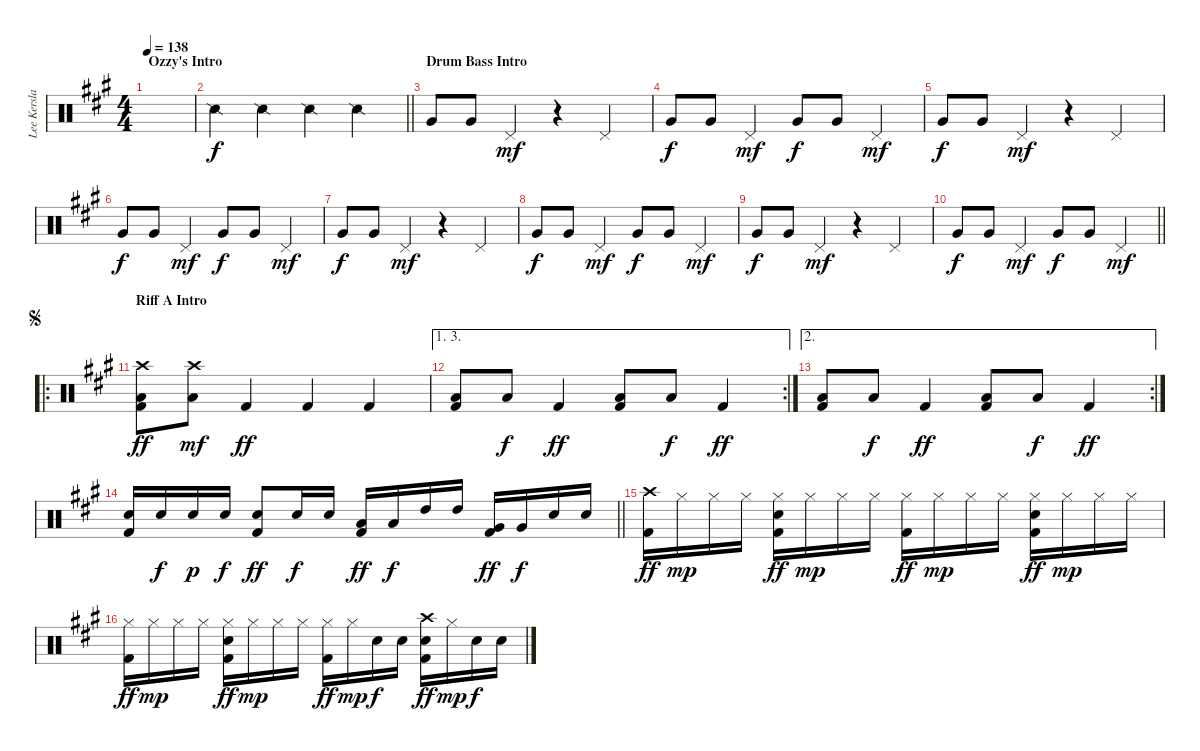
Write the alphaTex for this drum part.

\track ("Lee Kerslake" "Lee Kersla") {instrument percussion}
\staff {score}
\articulation defaults
\ts (4 4)
\section ("" "Ozzy's Intro")
\tempo 138
\clef neutral
\ks a
|
\barLineRight lightlight "Snare (side stick) 2".4 "Snare (side stick) 2".4 "Snare (side stick) 2".4 "Snare (side stick) 2".4
|
\section ("" "Drum Bass Intro")
"Very Low Tom (hit)".8 "Very Low Tom (hit)".8 "Pedal Hi-Hat (hit)".4{dy mf} r.4 "Pedal Hi-Hat (hit)".4 |
"Very Low Tom (hit)".8{dy f} "Very Low Tom (hit)".8 "Pedal Hi-Hat (hit)".4{dy mf} "Very Low Tom (hit)".8{dy f} "Very Low Tom (hit)".8 "Pedal Hi-Hat (hit)".4{dy mf} |
"Very Low Tom (hit)".8{dy f} "Very Low Tom (hit)".8 "Pedal Hi-Hat (hit)".4{dy mf} r.4 "Pedal Hi-Hat (hit)".4 |
"Very Low Tom (hit)".8{dy f} "Very Low Tom (hit)".8 "Pedal Hi-Hat (hit)".4{dy mf} "Very Low Tom (hit)".8{dy f} "Very Low Tom (hit)".8 "Pedal Hi-Hat (hit)".4{dy mf} |
"Very Low Tom (hit)".8{dy f} "Very Low Tom (hit)".8 "Pedal Hi-Hat (hit)".4{dy mf} r.4 "Pedal Hi-Hat (hit)".4 |
"Very Low Tom (hit)".8{dy f} "Very Low Tom (hit)".8 "Pedal Hi-Hat (hit)".4{dy mf} "Very Low Tom (hit)".8{dy f} "Very Low Tom (hit)".8 "Pedal Hi-Hat (hit)".4{dy mf} |
"Very Low Tom (hit)".8{dy f} "Very Low Tom (hit)".8 "Pedal Hi-Hat (hit)".4{dy mf} r.4 "Pedal Hi-Hat (hit)".4 |
\barLineRight lightlight "Very Low Tom (hit)".8{dy f} "Very Low Tom (hit)".8 "Pedal Hi-Hat (hit)".4{dy mf} "Very Low Tom (hit)".8{dy f} "Very Low Tom (hit)".8 "Pedal Hi-Hat (hit)".4{dy mf}
|
\ro
\section ("" "Riff A Intro")
\jump segno
("Low Tom (hit)" "Crash high (hit)" "Kick (hit) 2").8{dy ff} ("Low Tom (hit)" "Crash high (hit)").8{dy mf} "Kick (hit) 2".4{dy ff} "Kick (hit) 2".4 "Kick (hit) 2".4 |
\ae (1 3)
\rc 2
("Low Tom (hit)" "Kick (hit) 2").8 "Low Tom (hit)".8{dy f} "Kick (hit) 2".4{dy ff} ("Low Tom (hit)" "Kick (hit) 2").8 "Low Tom (hit)".8{dy f} "Kick (hit) 2".4{dy ff} |
\ae 2
\rc 2
("Low Tom (hit)" "Kick (hit) 2").8 "Low Tom (hit)".8{dy f} "Kick (hit) 2".4{dy ff} ("Low Tom (hit)" "Kick (hit) 2").8 "Low Tom (hit)".8{dy f} "Kick (hit) 2".4{dy ff} |
\barLineRight lightlight
("Kick (hit) 2" "Snare (hit) 2").16 "Snare (hit) 2".16{dy f} "Snare (hit) 2".16{dy p} "Snare (hit) 2".16{dy f} ("Kick (hit) 2" "Snare (hit) 2").8{dy ff} "Snare (hit) 2".16{dy f} "Snare (hit) 2".16 ("Kick (hit) 2" "Low Tom (hit)").16{dy ff} "Low Tom (hit)".16{dy f} "High Tom (hit)".16 "High Tom (hit)".16 ("Kick (hit) 2" "Very Low Tom (hit)").16{dy ff} "Very Low Tom (hit)".16{dy f} "Snare (hit) 2".16 "Snare (hit) 2".16 |
("Crash high (hit)" "Kick (hit) 2").16{dy ff} "Hi-Hat (closed)".16{dy mp} "Hi-Hat (closed)".16 "Hi-Hat (closed)".16 ("Hi-Hat (closed)" "Snare (hit) 2" "Kick (hit) 2").16{dy ff} "Hi-Hat (closed)".16{dy mp} "Hi-Hat (closed)".16 "Hi-Hat (closed)".16 ("Hi-Hat (closed)" "Kick (hit) 2").16{dy ff} "Hi-Hat (closed)".16{dy mp} "Hi-Hat (closed)".16 "Hi-Hat (closed)".16 ("Hi-Hat (closed)" "Snare (hit) 2" "Kick (hit) 2").16{dy ff} "Hi-Hat (closed)".16{dy mp} "Hi-Hat (closed)".16 "Hi-Hat (closed)".16 |
("Hi-Hat (closed)" "Kick (hit) 2").16{dy ff} "Hi-Hat (closed)".16{dy mp} "Hi-Hat (closed)".16 "Hi-Hat (closed)".16 ("Hi-Hat (closed)" "Snare (hit) 2" "Kick (hit) 2").16{dy ff} "Hi-Hat (closed)".16{dy mp} "Hi-Hat (closed)".16 "Hi-Hat (closed)".16 ("Hi-Hat (closed)" "Kick (hit) 2").16{dy ff} "Hi-Hat (closed)".16{dy mp} "Snare (hit) 2".16{dy f} "Snare (hit) 2".16 ("Crash high (hit)" "Snare (hit) 2" "Kick (hit) 2").16{dy ff} "Hi-Hat (closed)".16{dy mp} "Snare (hit) 2".16{dy f} "Snare (hit) 2".16
